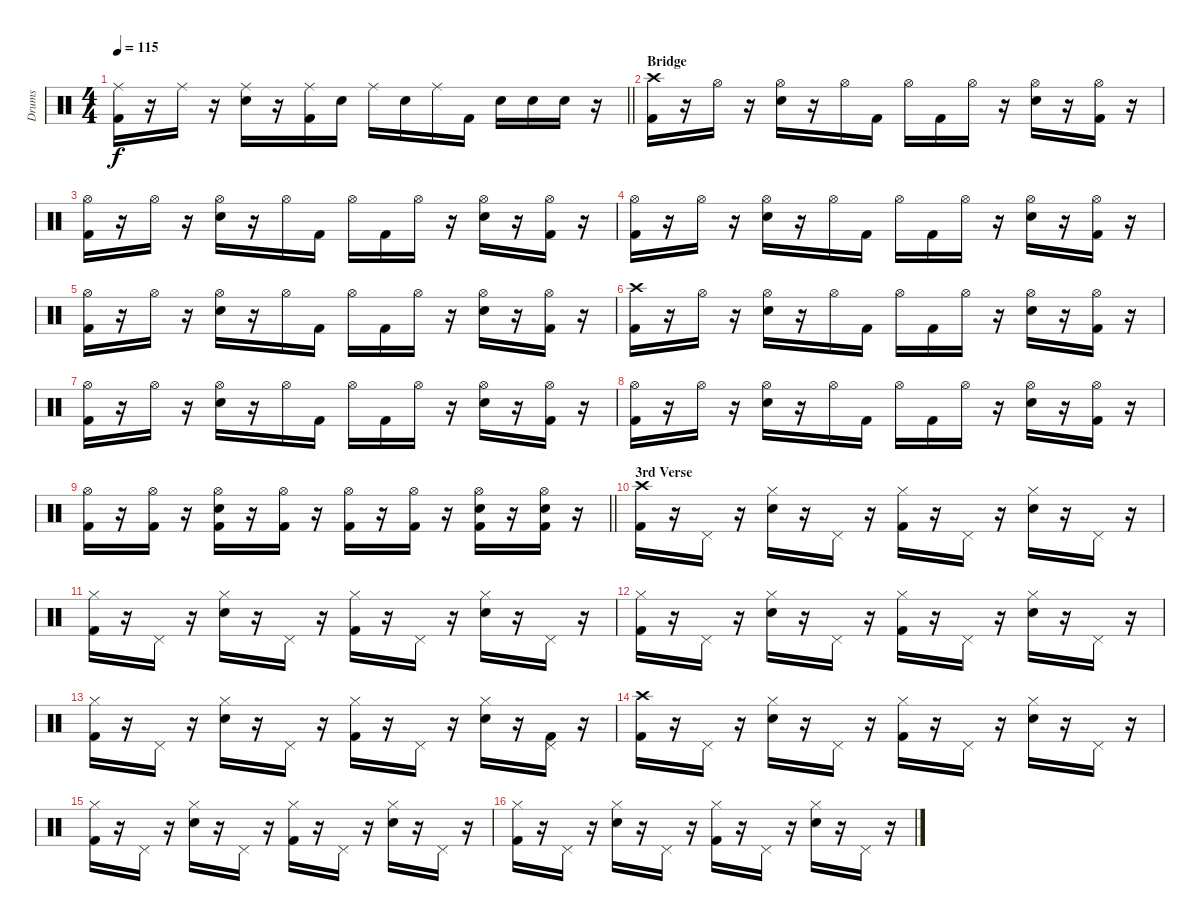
\track ("Drums" "Drums") {instrument percussion}
\staff {score}
\articulation defaults
\ts (4 4)
\tempo 115
\clef neutral
\barLineRight lightlight
\ks c
("Ride (middle)" "Kick (hit) 2").16{dy f} r.16 "Ride (middle)".16 r.16 ("Ride (middle)" "Snare (hit) 2").16 r.16 ("Ride (middle)" "Kick (hit) 2").16 "Snare (hit) 2".16 "Ride (middle)".16 "Snare (hit) 2".16 "Ride (middle)".16 "Kick (hit) 2".16 "Snare (hit) 2".16 "Snare (hit) 2".16 "Snare (hit) 2".16 r.16 |
\section ("" "Bridge")
("Crash high (hit)" "Kick (hit) 2").16 r.16 "Hi-Hat (open)".16 r.16 ("Hi-Hat (open)" "Snare (hit) 2").16 r.16 "Hi-Hat (open)".16 "Kick (hit) 2".16 "Hi-Hat (open)".16 "Kick (hit) 2".16 "Hi-Hat (open)".16 r.16 ("Hi-Hat (open)" "Snare (hit) 2").16 r.16 ("Hi-Hat (open)" "Kick (hit) 2").16 r.16 |
("Hi-Hat (open)" "Kick (hit) 2").16 r.16 "Hi-Hat (open)".16 r.16 ("Hi-Hat (open)" "Snare (hit) 2").16 r.16 "Hi-Hat (open)".16 "Kick (hit) 2".16 "Hi-Hat (open)".16 "Kick (hit) 2".16 "Hi-Hat (open)".16 r.16 ("Hi-Hat (open)" "Snare (hit) 2").16 r.16 ("Hi-Hat (open)" "Kick (hit) 2").16 r.16 |
("Hi-Hat (open)" "Kick (hit) 2").16 r.16 "Hi-Hat (open)".16 r.16 ("Hi-Hat (open)" "Snare (hit) 2").16 r.16 "Hi-Hat (open)".16 "Kick (hit) 2".16 "Hi-Hat (open)".16 "Kick (hit) 2".16 "Hi-Hat (open)".16 r.16 ("Hi-Hat (open)" "Snare (hit) 2").16 r.16 ("Hi-Hat (open)" "Kick (hit) 2").16 r.16 |
("Hi-Hat (open)" "Kick (hit) 2").16 r.16 "Hi-Hat (open)".16 r.16 ("Hi-Hat (open)" "Snare (hit) 2").16 r.16 "Hi-Hat (open)".16 "Kick (hit) 2".16 "Hi-Hat (open)".16 "Kick (hit) 2".16 "Hi-Hat (open)".16 r.16 ("Hi-Hat (open)" "Snare (hit) 2").16 r.16 ("Hi-Hat (open)" "Kick (hit) 2").16 r.16 |
("Crash high (hit)" "Kick (hit) 2").16 r.16 "Hi-Hat (open)".16 r.16 ("Hi-Hat (open)" "Snare (hit) 2").16 r.16 "Hi-Hat (open)".16 "Kick (hit) 2".16 "Hi-Hat (open)".16 "Kick (hit) 2".16 "Hi-Hat (open)".16 r.16 ("Hi-Hat (open)" "Snare (hit) 2").16 r.16 ("Hi-Hat (open)" "Kick (hit) 2").16 r.16 |
("Hi-Hat (open)" "Kick (hit) 2").16 r.16 "Hi-Hat (open)".16 r.16 ("Hi-Hat (open)" "Snare (hit) 2").16 r.16 "Hi-Hat (open)".16 "Kick (hit) 2".16 "Hi-Hat (open)".16 "Kick (hit) 2".16 "Hi-Hat (open)".16 r.16 ("Hi-Hat (open)" "Snare (hit) 2").16 r.16 ("Hi-Hat (open)" "Kick (hit) 2").16 r.16 |
("Hi-Hat (open)" "Kick (hit) 2").16 r.16 "Hi-Hat (open)".16 r.16 ("Hi-Hat (open)" "Snare (hit) 2").16 r.16 "Hi-Hat (open)".16 "Kick (hit) 2".16 "Hi-Hat (open)".16 "Kick (hit) 2".16 "Hi-Hat (open)".16 r.16 ("Hi-Hat (open)" "Snare (hit) 2").16 r.16 ("Hi-Hat (open)" "Kick (hit) 2").16 r.16 |
\barLineRight lightlight
("Hi-Hat (open)" "Kick (hit) 2").16 r.16 ("Hi-Hat (open)" "Kick (hit) 2").16 r.16 ("Hi-Hat (open)" "Snare (hit) 2" "Kick (hit) 2").16 r.16 ("Hi-Hat (open)" "Kick (hit) 2").16 r.16 ("Hi-Hat (open)" "Kick (hit) 2").16 r.16 ("Hi-Hat (open)" "Kick (hit) 2").16 r.16 ("Hi-Hat (open)" "Snare (hit) 2" "Kick (hit) 2").16 r.16 ("Hi-Hat (open)" "Snare (hit) 2" "Kick (hit) 2").16 r.16 |
\section ("" "3rd Verse")
("Crash high (hit)" "Kick (hit) 2").16 r.16 "Pedal Hi-Hat (hit)".16 r.16 ("Hi-Hat (closed)" "Snare (hit) 2").16 r.16 "Pedal Hi-Hat (hit)".16 r.16 ("Hi-Hat (closed)" "Kick (hit) 2").16 r.16 "Pedal Hi-Hat (hit)".16 r.16 ("Hi-Hat (closed)" "Snare (hit) 2").16 r.16 "Pedal Hi-Hat (hit)".16 r.16 |
("Hi-Hat (closed)" "Kick (hit) 2").16 r.16 "Pedal Hi-Hat (hit)".16 r.16 ("Hi-Hat (closed)" "Snare (hit) 2").16 r.16 "Pedal Hi-Hat (hit)".16 r.16 ("Hi-Hat (closed)" "Kick (hit) 2").16 r.16 "Pedal Hi-Hat (hit)".16 r.16 ("Hi-Hat (closed)" "Snare (hit) 2").16 r.16 "Pedal Hi-Hat (hit)".16 r.16 |
("Hi-Hat (closed)" "Kick (hit) 2").16 r.16 "Pedal Hi-Hat (hit)".16 r.16 ("Hi-Hat (closed)" "Snare (hit) 2").16 r.16 "Pedal Hi-Hat (hit)".16 r.16 ("Hi-Hat (closed)" "Kick (hit) 2").16 r.16 "Pedal Hi-Hat (hit)".16 r.16 ("Hi-Hat (closed)" "Snare (hit) 2").16 r.16 "Pedal Hi-Hat (hit)".16 r.16 |
("Hi-Hat (closed)" "Kick (hit) 2").16 r.16 "Pedal Hi-Hat (hit)".16 r.16 ("Hi-Hat (closed)" "Snare (hit) 2").16 r.16 "Pedal Hi-Hat (hit)".16 r.16 ("Hi-Hat (closed)" "Kick (hit) 2").16 r.16 "Pedal Hi-Hat (hit)".16 r.16 ("Hi-Hat (closed)" "Snare (hit) 2").16 r.16 ("Pedal Hi-Hat (hit)" "Kick (hit) 2").16 r.16 |
("Crash high (hit)" "Kick (hit) 2").16 r.16 "Pedal Hi-Hat (hit)".16 r.16 ("Hi-Hat (closed)" "Snare (hit) 2").16 r.16 "Pedal Hi-Hat (hit)".16 r.16 ("Hi-Hat (closed)" "Kick (hit) 2").16 r.16 "Pedal Hi-Hat (hit)".16 r.16 ("Hi-Hat (closed)" "Snare (hit) 2").16 r.16 "Pedal Hi-Hat (hit)".16 r.16 |
("Hi-Hat (closed)" "Kick (hit) 2").16 r.16 "Pedal Hi-Hat (hit)".16 r.16 ("Hi-Hat (closed)" "Snare (hit) 2").16 r.16 "Pedal Hi-Hat (hit)".16 r.16 ("Hi-Hat (closed)" "Kick (hit) 2").16 r.16 "Pedal Hi-Hat (hit)".16 r.16 ("Hi-Hat (closed)" "Snare (hit) 2").16 r.16 "Pedal Hi-Hat (hit)".16 r.16 |
("Hi-Hat (closed)" "Kick (hit) 2").16 r.16 "Pedal Hi-Hat (hit)".16 r.16 ("Hi-Hat (closed)" "Snare (hit) 2").16 r.16 "Pedal Hi-Hat (hit)".16 r.16 ("Hi-Hat (closed)" "Kick (hit) 2").16 r.16 "Pedal Hi-Hat (hit)".16 r.16 ("Hi-Hat (closed)" "Snare (hit) 2").16 r.16 "Pedal Hi-Hat (hit)".16 r.16
